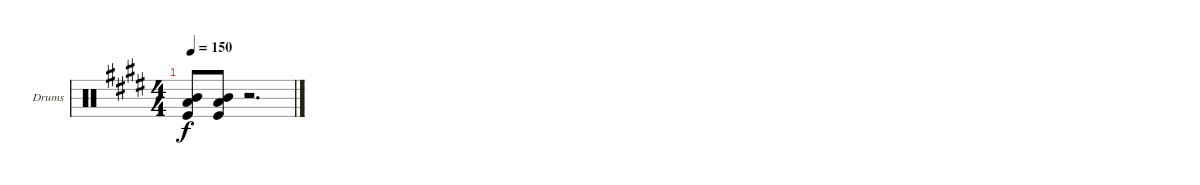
\bracketExtendMode groupsimilarinstruments
\firstSystemTrackNameOrientation horizontal
\otherSystemsTrackNameOrientation horizontal
\track ("Drumkit" "Drums") {instrument percussion}
\staff {score}
\articulation defaults
\ts (4 4)
\tempo 150
\clef neutral
\ks e
("Low Tom (hit)" "Mid Tom (hit)" "Kick (hit)").8{dy f} ("Low Tom (hit)" "Mid Tom (hit)" "Kick (hit)").8 r.2{d}
